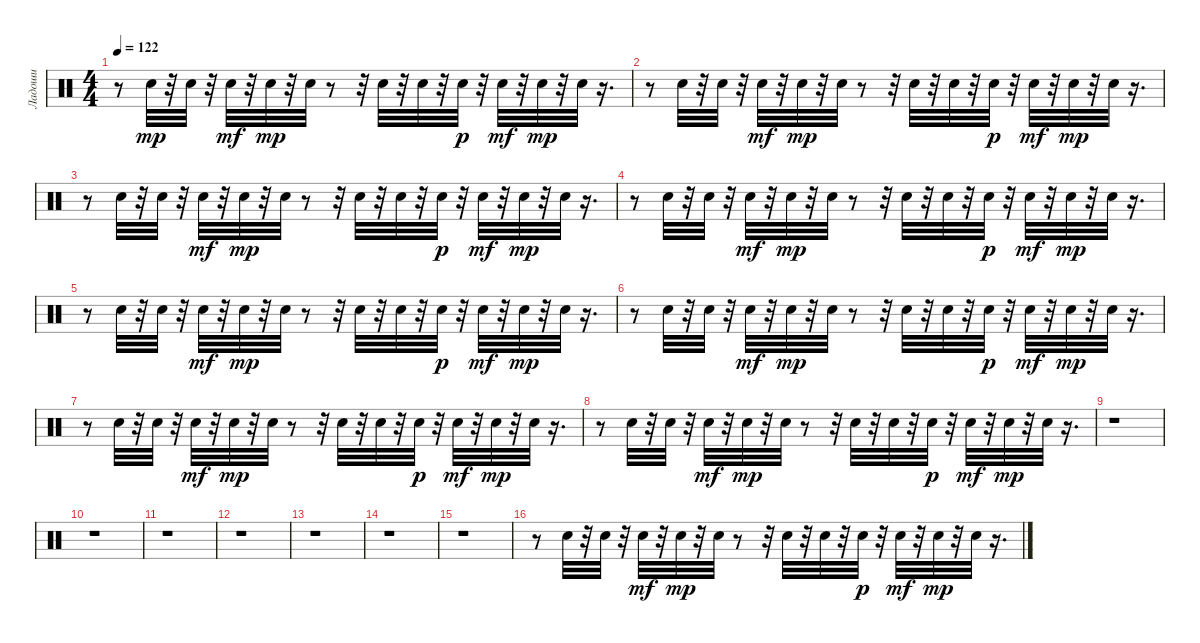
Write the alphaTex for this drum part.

\track ("Ладоши" "Ладоши") {instrument percussion}
\staff {score}
\articulation defaults
\ts (4 4)
\tempo 122
\clef neutral
\ks c
r.8{dy mp} "Hand Clap (hit)".32 r.32 "Hand Clap (hit)".32 r.32 "Hand Clap (hit)".32{dy mf} r.32 "Hand Clap (hit)".32{dy mp} r.32 "Hand Clap (hit)".32 r.8 r.32 "Hand Clap (hit)".32 r.32 "Hand Clap (hit)".32 r.32 "Hand Clap (hit)".32{dy p} r.32 "Hand Clap (hit)".32{dy mf} r.32 "Hand Clap (hit)".32{dy mp} r.32 "Hand Clap (hit)".32 r.16{d} |
r.8 "Hand Clap (hit)".32 r.32 "Hand Clap (hit)".32 r.32 "Hand Clap (hit)".32{dy mf} r.32 "Hand Clap (hit)".32{dy mp} r.32 "Hand Clap (hit)".32 r.8 r.32 "Hand Clap (hit)".32 r.32 "Hand Clap (hit)".32 r.32 "Hand Clap (hit)".32{dy p} r.32 "Hand Clap (hit)".32{dy mf} r.32 "Hand Clap (hit)".32{dy mp} r.32 "Hand Clap (hit)".32 r.16{d} |
r.8 "Hand Clap (hit)".32 r.32 "Hand Clap (hit)".32 r.32 "Hand Clap (hit)".32{dy mf} r.32 "Hand Clap (hit)".32{dy mp} r.32 "Hand Clap (hit)".32 r.8 r.32 "Hand Clap (hit)".32 r.32 "Hand Clap (hit)".32 r.32 "Hand Clap (hit)".32{dy p} r.32 "Hand Clap (hit)".32{dy mf} r.32 "Hand Clap (hit)".32{dy mp} r.32 "Hand Clap (hit)".32 r.16{d} |
r.8 "Hand Clap (hit)".32 r.32 "Hand Clap (hit)".32 r.32 "Hand Clap (hit)".32{dy mf} r.32 "Hand Clap (hit)".32{dy mp} r.32 "Hand Clap (hit)".32 r.8 r.32 "Hand Clap (hit)".32 r.32 "Hand Clap (hit)".32 r.32 "Hand Clap (hit)".32{dy p} r.32 "Hand Clap (hit)".32{dy mf} r.32 "Hand Clap (hit)".32{dy mp} r.32 "Hand Clap (hit)".32 r.16{d} |
r.8 "Hand Clap (hit)".32 r.32 "Hand Clap (hit)".32 r.32 "Hand Clap (hit)".32{dy mf} r.32 "Hand Clap (hit)".32{dy mp} r.32 "Hand Clap (hit)".32 r.8 r.32 "Hand Clap (hit)".32 r.32 "Hand Clap (hit)".32 r.32 "Hand Clap (hit)".32{dy p} r.32 "Hand Clap (hit)".32{dy mf} r.32 "Hand Clap (hit)".32{dy mp} r.32 "Hand Clap (hit)".32 r.16{d} |
r.8 "Hand Clap (hit)".32 r.32 "Hand Clap (hit)".32 r.32 "Hand Clap (hit)".32{dy mf} r.32 "Hand Clap (hit)".32{dy mp} r.32 "Hand Clap (hit)".32 r.8 r.32 "Hand Clap (hit)".32 r.32 "Hand Clap (hit)".32 r.32 "Hand Clap (hit)".32{dy p} r.32 "Hand Clap (hit)".32{dy mf} r.32 "Hand Clap (hit)".32{dy mp} r.32 "Hand Clap (hit)".32 r.16{d} |
r.8 "Hand Clap (hit)".32 r.32 "Hand Clap (hit)".32 r.32 "Hand Clap (hit)".32{dy mf} r.32 "Hand Clap (hit)".32{dy mp} r.32 "Hand Clap (hit)".32 r.8 r.32 "Hand Clap (hit)".32 r.32 "Hand Clap (hit)".32 r.32 "Hand Clap (hit)".32{dy p} r.32 "Hand Clap (hit)".32{dy mf} r.32 "Hand Clap (hit)".32{dy mp} r.32 "Hand Clap (hit)".32 r.16{d} |
r.8 "Hand Clap (hit)".32 r.32 "Hand Clap (hit)".32 r.32 "Hand Clap (hit)".32{dy mf} r.32 "Hand Clap (hit)".32{dy mp} r.32 "Hand Clap (hit)".32 r.8 r.32 "Hand Clap (hit)".32 r.32 "Hand Clap (hit)".32 r.32 "Hand Clap (hit)".32{dy p} r.32 "Hand Clap (hit)".32{dy mf} r.32 "Hand Clap (hit)".32{dy mp} r.32 "Hand Clap (hit)".32 r.16{d} |
r.1 |
r.1 |
r.1 |
r.1 |
r.1 |
r.1 |
r.1 |
r.8 "Hand Clap (hit)".32 r.32 "Hand Clap (hit)".32 r.32 "Hand Clap (hit)".32{dy mf} r.32 "Hand Clap (hit)".32{dy mp} r.32 "Hand Clap (hit)".32 r.8 r.32 "Hand Clap (hit)".32 r.32 "Hand Clap (hit)".32 r.32 "Hand Clap (hit)".32{dy p} r.32 "Hand Clap (hit)".32{dy mf} r.32 "Hand Clap (hit)".32{dy mp} r.32 "Hand Clap (hit)".32 r.16{d}
